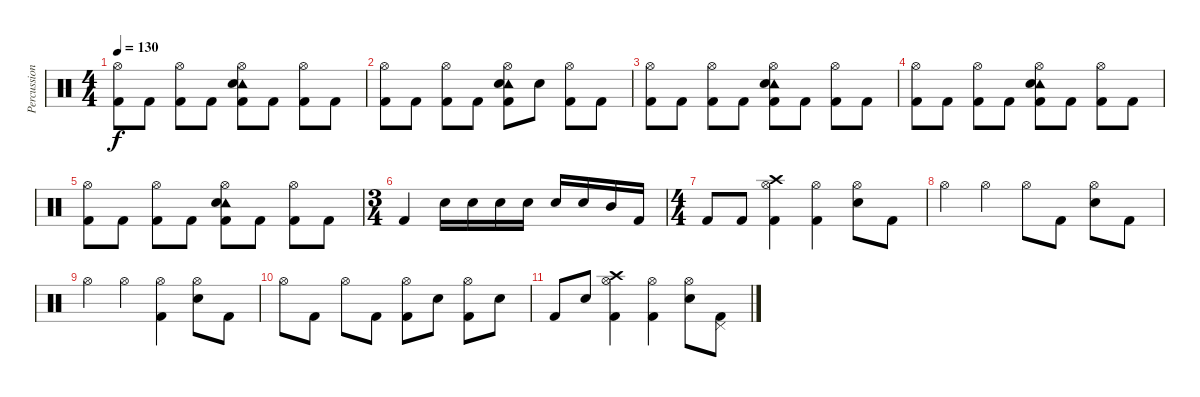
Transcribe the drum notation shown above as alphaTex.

\track ("Percussion" "Percussion") {instrument percussion}
\staff {score}
\articulation defaults
\ts (4 4)
\tempo 130
\clef neutral
\ks c
("Hi-Hat (open)" "Kick (hit) 2").8{dy f} "Kick (hit) 2".8 ("Hi-Hat (open)" "Kick (hit) 2").8 "Kick (hit) 2".8 ("Hi-Hat (open)" "Tambourine (hit)" "Snare (hit) 2" "Kick (hit) 2").8 "Kick (hit) 2".8 ("Hi-Hat (open)" "Kick (hit) 2").8 "Kick (hit) 2".8 |
("Hi-Hat (open)" "Kick (hit) 2").8 "Kick (hit) 2".8 ("Hi-Hat (open)" "Kick (hit) 2").8 "Kick (hit) 2".8 ("Hi-Hat (open)" "Tambourine (hit)" "Snare (hit) 2" "Kick (hit) 2").8 "Snare (hit) 2".8 ("Hi-Hat (open)" "Kick (hit) 2").8 "Kick (hit) 2".8 |
("Hi-Hat (open)" "Kick (hit) 2").8 "Kick (hit) 2".8 ("Hi-Hat (open)" "Kick (hit) 2").8 "Kick (hit) 2".8 ("Hi-Hat (open)" "Tambourine (hit)" "Snare (hit) 2" "Kick (hit) 2").8 "Kick (hit) 2".8 ("Hi-Hat (open)" "Kick (hit) 2").8 "Kick (hit) 2".8 |
("Hi-Hat (open)" "Kick (hit) 2").8 "Kick (hit) 2".8 ("Hi-Hat (open)" "Kick (hit) 2").8 "Kick (hit) 2".8 ("Hi-Hat (open)" "Tambourine (hit)" "Snare (hit) 2" "Kick (hit) 2").8 "Kick (hit) 2".8 ("Hi-Hat (open)" "Kick (hit) 2").8 "Kick (hit) 2".8 |
("Hi-Hat (open)" "Kick (hit) 2").8 "Kick (hit) 2".8 ("Hi-Hat (open)" "Kick (hit) 2").8 "Kick (hit) 2".8 ("Hi-Hat (open)" "Tambourine (hit)" "Snare (hit) 2" "Kick (hit) 2").8 "Kick (hit) 2".8 ("Hi-Hat (open)" "Kick (hit) 2").8 "Kick (hit) 2".8 |
\ts (3 4)
"Kick (hit) 2".4 "Snare (hit) 2".16 "Snare (hit) 2".16 "Snare (hit) 2".16 "Snare (hit) 2".16 "Snare (hit) 2".16 "Snare (hit) 2".16 "Mid Tom (hit)".16 "Kick (hit) 2".16 |
\ts (4 4)
"Kick (hit) 2".8 "Kick (hit) 2".8 ("Crash high (hit)" "Hi-Hat (open)" "Kick (hit) 2").4 ("Hi-Hat (open)" "Kick (hit) 2").4 ("Hi-Hat (open)" "Snare (hit) 2").8 "Kick (hit) 2".8 |
"Hi-Hat (open)".4 "Hi-Hat (open)".4 "Hi-Hat (open)".8 "Kick (hit) 2".8 ("Hi-Hat (open)" "Snare (hit) 2").8 "Kick (hit) 2".8 |
"Hi-Hat (open)".4 "Hi-Hat (open)".4 ("Hi-Hat (open)" "Kick (hit) 2").4 ("Hi-Hat (open)" "Snare (hit) 2").8 "Kick (hit) 2".8 |
"Hi-Hat (open)".8 "Kick (hit) 2".8 "Hi-Hat (open)".8 "Kick (hit) 2".8 ("Hi-Hat (open)" "Kick (hit) 2").8 "Snare (hit) 2".8 ("Hi-Hat (open)" "Kick (hit) 2").8 "Snare (hit) 2".8 |
"Kick (hit) 2".8 "Snare (hit) 2".8 ("Crash high (hit)" "Hi-Hat (open)" "Kick (hit) 2").4 ("Hi-Hat (open)" "Kick (hit) 2").4 ("Hi-Hat (open)" "Snare (hit) 2").8 ("Pedal Hi-Hat (hit)" "Kick (hit) 2").8
